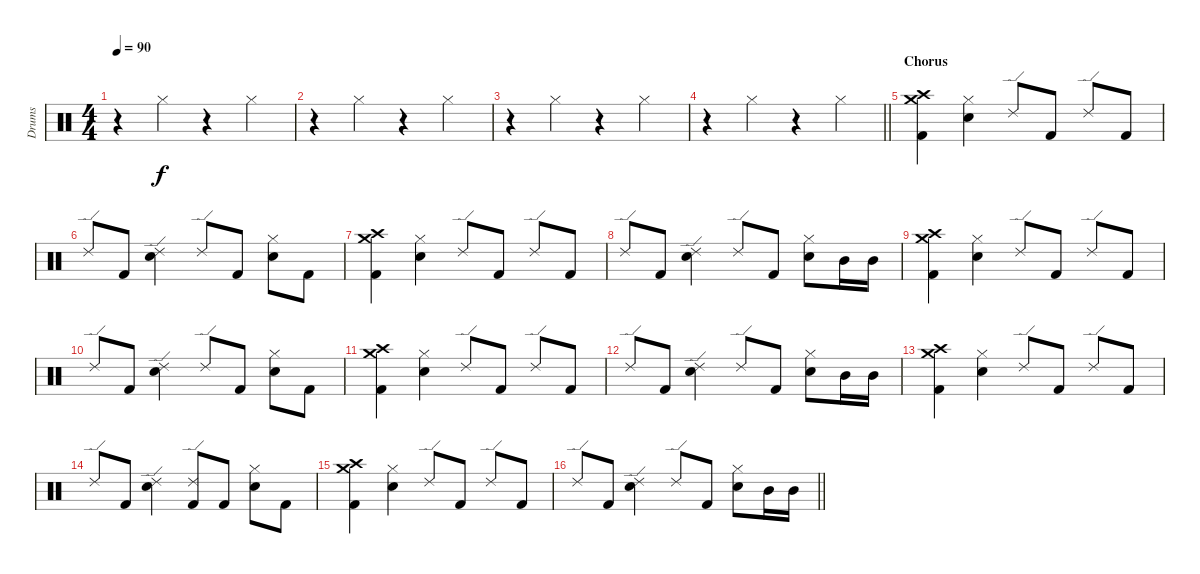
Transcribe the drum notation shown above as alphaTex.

\track ("Drums" "Drums") {instrument percussion}
\staff {score}
\articulation defaults
\ts (4 4)
\tempo 90
\clef neutral
\ks c
r.4{dy f} "Hi-Hat (closed)".4 r.4 "Hi-Hat (closed)".4 |
r.4 "Hi-Hat (closed)".4 r.4 "Hi-Hat (closed)".4 |
r.4 "Hi-Hat (closed)".4 r.4 "Hi-Hat (closed)".4 |
\barLineRight lightlight
r.4 "Hi-Hat (closed)".4 r.4 "Hi-Hat (closed)".4 |
\section ("" "Chorus")
("Crash high (hit)" "Crash medium (hit)" "Kick (hit) 2").4 ("Hi-Hat (closed)" "Snare (hit) 2").4 "Ride (edge) 2".8 "Kick (hit) 2".8 "Ride (edge) 2".8 "Kick (hit) 2".8 |
"Ride (edge) 2".8 "Kick (hit) 2".8 ("Ride (edge) 2" "Snare (hit) 2").4 "Ride (edge) 2".8 "Kick (hit) 2".8 ("Hi-Hat (closed)" "Snare (hit) 2").8 "Kick (hit) 2".8 |
("Crash high (hit)" "Crash medium (hit)" "Kick (hit) 2").4 ("Hi-Hat (closed)" "Snare (hit) 2").4 "Ride (edge) 2".8 "Kick (hit) 2".8 "Ride (edge) 2".8 "Kick (hit) 2".8 |
"Ride (edge) 2".8 "Kick (hit) 2".8 ("Ride (edge) 2" "Snare (hit) 2").4 "Ride (edge) 2".8 "Kick (hit) 2".8 ("Hi-Hat (closed)" "Snare (hit) 2").8 "Mid Tom (hit)".16 "Mid Tom (hit)".16 |
("Crash high (hit)" "Crash medium (hit)" "Kick (hit) 2").4 ("Hi-Hat (closed)" "Snare (hit) 2").4 "Ride (edge) 2".8 "Kick (hit) 2".8 "Ride (edge) 2".8 "Kick (hit) 2".8 |
"Ride (edge) 2".8 "Kick (hit) 2".8 ("Ride (edge) 2" "Snare (hit) 2").4 "Ride (edge) 2".8 "Kick (hit) 2".8 ("Hi-Hat (closed)" "Snare (hit) 2").8 "Kick (hit) 2".8 |
("Crash high (hit)" "Crash medium (hit)" "Kick (hit) 2").4 ("Hi-Hat (closed)" "Snare (hit) 2").4 "Ride (edge) 2".8 "Kick (hit) 2".8 "Ride (edge) 2".8 "Kick (hit) 2".8 |
"Ride (edge) 2".8 "Kick (hit) 2".8 ("Ride (edge) 2" "Snare (hit) 2").4 "Ride (edge) 2".8 "Kick (hit) 2".8 ("Hi-Hat (closed)" "Snare (hit) 2").8 "Mid Tom (hit)".16 "Mid Tom (hit)".16 |
("Crash high (hit)" "Crash medium (hit)" "Kick (hit) 2").4 ("Hi-Hat (closed)" "Snare (hit) 2").4 "Ride (edge) 2".8 "Kick (hit) 2".8 "Ride (edge) 2".8 "Kick (hit) 2".8 |
"Ride (edge) 2".8 "Kick (hit) 2".8 ("Ride (edge) 2" "Snare (hit) 2").4 ("Ride (edge) 2" "Kick (hit) 2").8 "Kick (hit) 2".8 ("Hi-Hat (closed)" "Snare (hit) 2").8 "Kick (hit) 2".8 |
("Crash high (hit)" "Crash medium (hit)" "Kick (hit) 2").4 ("Hi-Hat (closed)" "Snare (hit) 2").4 "Ride (edge) 2".8 "Kick (hit) 2".8 "Ride (edge) 2".8 "Kick (hit) 2".8 |
\barLineRight lightlight "Ride (edge) 2".8 "Kick (hit) 2".8
("Ride (edge) 2" "Snare (hit) 2").4 "Ride (edge) 2".8 "Kick (hit) 2".8 ("Hi-Hat (closed)" "Snare (hit) 2").8 "Mid Tom (hit)".16 "Mid Tom (hit)".16
